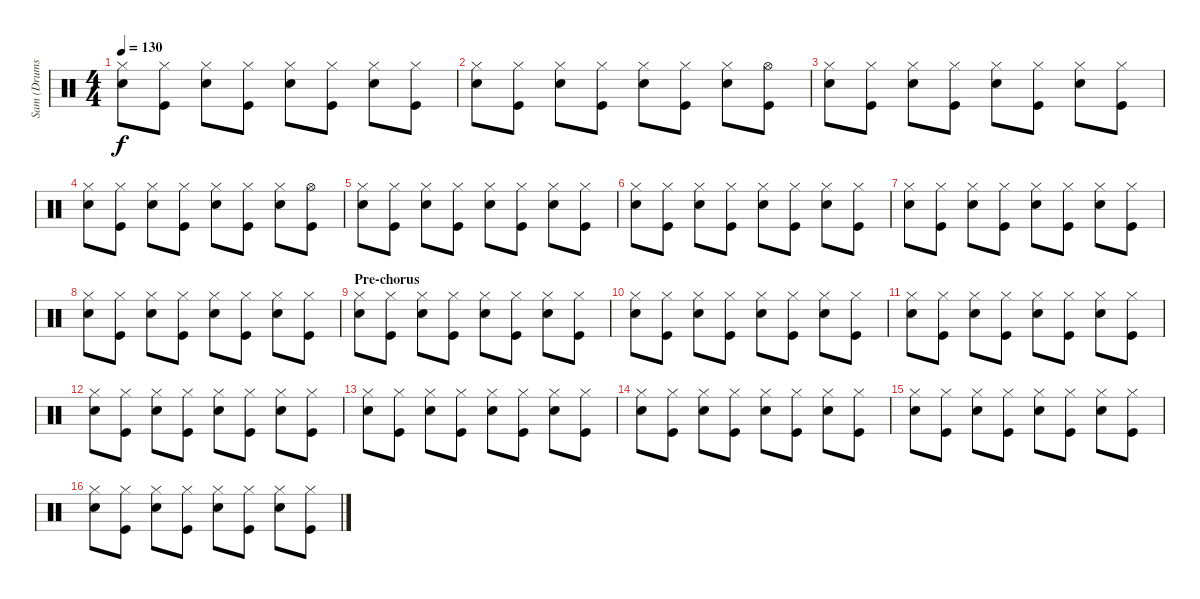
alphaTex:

\track ("Sam (Drums)" "Sam (Drums") {instrument percussion}
\staff {score}
\articulation defaults
\ts (4 4)
\tempo 130
\clef neutral
\ks c
("Hi-Hat (closed)" "Snare (hit) 2").8{dy f} ("Hi-Hat (closed)" "Kick (hit)").8 ("Hi-Hat (closed)" "Snare (hit) 2").8 ("Hi-Hat (closed)" "Kick (hit)").8 ("Hi-Hat (closed)" "Snare (hit) 2").8 ("Hi-Hat (closed)" "Kick (hit)").8 ("Hi-Hat (closed)" "Snare (hit) 2").8 ("Hi-Hat (closed)" "Kick (hit)").8 |
("Hi-Hat (closed)" "Snare (hit) 2").8 ("Hi-Hat (closed)" "Kick (hit)").8 ("Hi-Hat (closed)" "Snare (hit) 2").8 ("Hi-Hat (closed)" "Kick (hit)").8 ("Hi-Hat (closed)" "Snare (hit) 2").8 ("Hi-Hat (closed)" "Kick (hit)").8 ("Hi-Hat (closed)" "Snare (hit) 2").8 ("Hi-Hat (open)" "Kick (hit)").8 |
("Hi-Hat (closed)" "Snare (hit) 2").8 ("Hi-Hat (closed)" "Kick (hit)").8 ("Hi-Hat (closed)" "Snare (hit) 2").8 ("Hi-Hat (closed)" "Kick (hit)").8 ("Hi-Hat (closed)" "Snare (hit) 2").8 ("Hi-Hat (closed)" "Kick (hit)").8 ("Hi-Hat (closed)" "Snare (hit) 2").8 ("Hi-Hat (closed)" "Kick (hit)").8 |
("Hi-Hat (closed)" "Snare (hit) 2").8 ("Hi-Hat (closed)" "Kick (hit)").8 ("Hi-Hat (closed)" "Snare (hit) 2").8 ("Hi-Hat (closed)" "Kick (hit)").8 ("Hi-Hat (closed)" "Snare (hit) 2").8 ("Hi-Hat (closed)" "Kick (hit)").8 ("Hi-Hat (closed)" "Snare (hit) 2").8 ("Hi-Hat (open)" "Kick (hit)").8 |
("Hi-Hat (closed)" "Snare (hit) 2").8 ("Hi-Hat (closed)" "Kick (hit)").8 ("Hi-Hat (closed)" "Snare (hit) 2").8 ("Hi-Hat (closed)" "Kick (hit)").8 ("Hi-Hat (closed)" "Snare (hit) 2").8 ("Hi-Hat (closed)" "Kick (hit)").8 ("Hi-Hat (closed)" "Snare (hit) 2").8 ("Hi-Hat (closed)" "Kick (hit)").8 |
("Hi-Hat (closed)" "Snare (hit) 2").8 ("Hi-Hat (closed)" "Kick (hit)").8 ("Hi-Hat (closed)" "Snare (hit) 2").8 ("Hi-Hat (closed)" "Kick (hit)").8 ("Hi-Hat (closed)" "Snare (hit) 2").8 ("Hi-Hat (closed)" "Kick (hit)").8 ("Hi-Hat (closed)" "Snare (hit) 2").8 ("Hi-Hat (closed)" "Kick (hit)").8 |
("Hi-Hat (closed)" "Snare (hit) 2").8 ("Hi-Hat (closed)" "Kick (hit)").8 ("Hi-Hat (closed)" "Snare (hit) 2").8 ("Hi-Hat (closed)" "Kick (hit)").8 ("Hi-Hat (closed)" "Snare (hit) 2").8 ("Hi-Hat (closed)" "Kick (hit)").8 ("Hi-Hat (closed)" "Snare (hit) 2").8 ("Hi-Hat (closed)" "Kick (hit)").8 |
("Hi-Hat (closed)" "Snare (hit) 2").8 ("Hi-Hat (closed)" "Kick (hit)").8 ("Hi-Hat (closed)" "Snare (hit) 2").8 ("Hi-Hat (closed)" "Kick (hit)").8 ("Hi-Hat (closed)" "Snare (hit) 2").8 ("Hi-Hat (closed)" "Kick (hit)").8 ("Hi-Hat (closed)" "Snare (hit) 2").8 ("Hi-Hat (closed)" "Kick (hit)").8 |
\section ("" "Pre-chorus")
("Hi-Hat (closed)" "Snare (hit) 2").8 ("Hi-Hat (closed)" "Kick (hit)").8 ("Hi-Hat (closed)" "Snare (hit) 2").8 ("Hi-Hat (closed)" "Kick (hit)").8 ("Hi-Hat (closed)" "Snare (hit) 2").8 ("Hi-Hat (closed)" "Kick (hit)").8 ("Hi-Hat (closed)" "Snare (hit) 2").8 ("Hi-Hat (closed)" "Kick (hit)").8 |
("Hi-Hat (closed)" "Snare (hit) 2").8 ("Hi-Hat (closed)" "Kick (hit)").8 ("Hi-Hat (closed)" "Snare (hit) 2").8 ("Hi-Hat (closed)" "Kick (hit)").8 ("Hi-Hat (closed)" "Snare (hit) 2").8 ("Hi-Hat (closed)" "Kick (hit)").8 ("Hi-Hat (closed)" "Snare (hit) 2").8 ("Hi-Hat (closed)" "Kick (hit)").8 |
("Hi-Hat (closed)" "Snare (hit) 2").8 ("Hi-Hat (closed)" "Kick (hit)").8 ("Hi-Hat (closed)" "Snare (hit) 2").8 ("Hi-Hat (closed)" "Kick (hit)").8 ("Hi-Hat (closed)" "Snare (hit) 2").8 ("Hi-Hat (closed)" "Kick (hit)").8 ("Hi-Hat (closed)" "Snare (hit) 2").8 ("Hi-Hat (closed)" "Kick (hit)").8 |
("Hi-Hat (closed)" "Snare (hit) 2").8 ("Hi-Hat (closed)" "Kick (hit)").8 ("Hi-Hat (closed)" "Snare (hit) 2").8 ("Hi-Hat (closed)" "Kick (hit)").8 ("Hi-Hat (closed)" "Snare (hit) 2").8 ("Hi-Hat (closed)" "Kick (hit)").8 ("Hi-Hat (closed)" "Snare (hit) 2").8 ("Hi-Hat (closed)" "Kick (hit)").8 |
("Hi-Hat (closed)" "Snare (hit) 2").8 ("Hi-Hat (closed)" "Kick (hit)").8 ("Hi-Hat (closed)" "Snare (hit) 2").8 ("Hi-Hat (closed)" "Kick (hit)").8 ("Hi-Hat (closed)" "Snare (hit) 2").8 ("Hi-Hat (closed)" "Kick (hit)").8 ("Hi-Hat (closed)" "Snare (hit) 2").8 ("Hi-Hat (closed)" "Kick (hit)").8 |
("Hi-Hat (closed)" "Snare (hit) 2").8 ("Hi-Hat (closed)" "Kick (hit)").8 ("Hi-Hat (closed)" "Snare (hit) 2").8 ("Hi-Hat (closed)" "Kick (hit)").8 ("Hi-Hat (closed)" "Snare (hit) 2").8 ("Hi-Hat (closed)" "Kick (hit)").8 ("Hi-Hat (closed)" "Snare (hit) 2").8 ("Hi-Hat (closed)" "Kick (hit)").8 |
("Hi-Hat (closed)" "Snare (hit) 2").8 ("Hi-Hat (closed)" "Kick (hit)").8 ("Hi-Hat (closed)" "Snare (hit) 2").8 ("Hi-Hat (closed)" "Kick (hit)").8 ("Hi-Hat (closed)" "Snare (hit) 2").8 ("Hi-Hat (closed)" "Kick (hit)").8 ("Hi-Hat (closed)" "Snare (hit) 2").8 ("Hi-Hat (closed)" "Kick (hit)").8 |
("Hi-Hat (closed)" "Snare (hit) 2").8 ("Hi-Hat (closed)" "Kick (hit)").8 ("Hi-Hat (closed)" "Snare (hit) 2").8 ("Hi-Hat (closed)" "Kick (hit)").8 ("Hi-Hat (closed)" "Snare (hit) 2").8 ("Hi-Hat (closed)" "Kick (hit)").8 ("Hi-Hat (closed)" "Snare (hit) 2").8 ("Hi-Hat (closed)" "Kick (hit)").8
